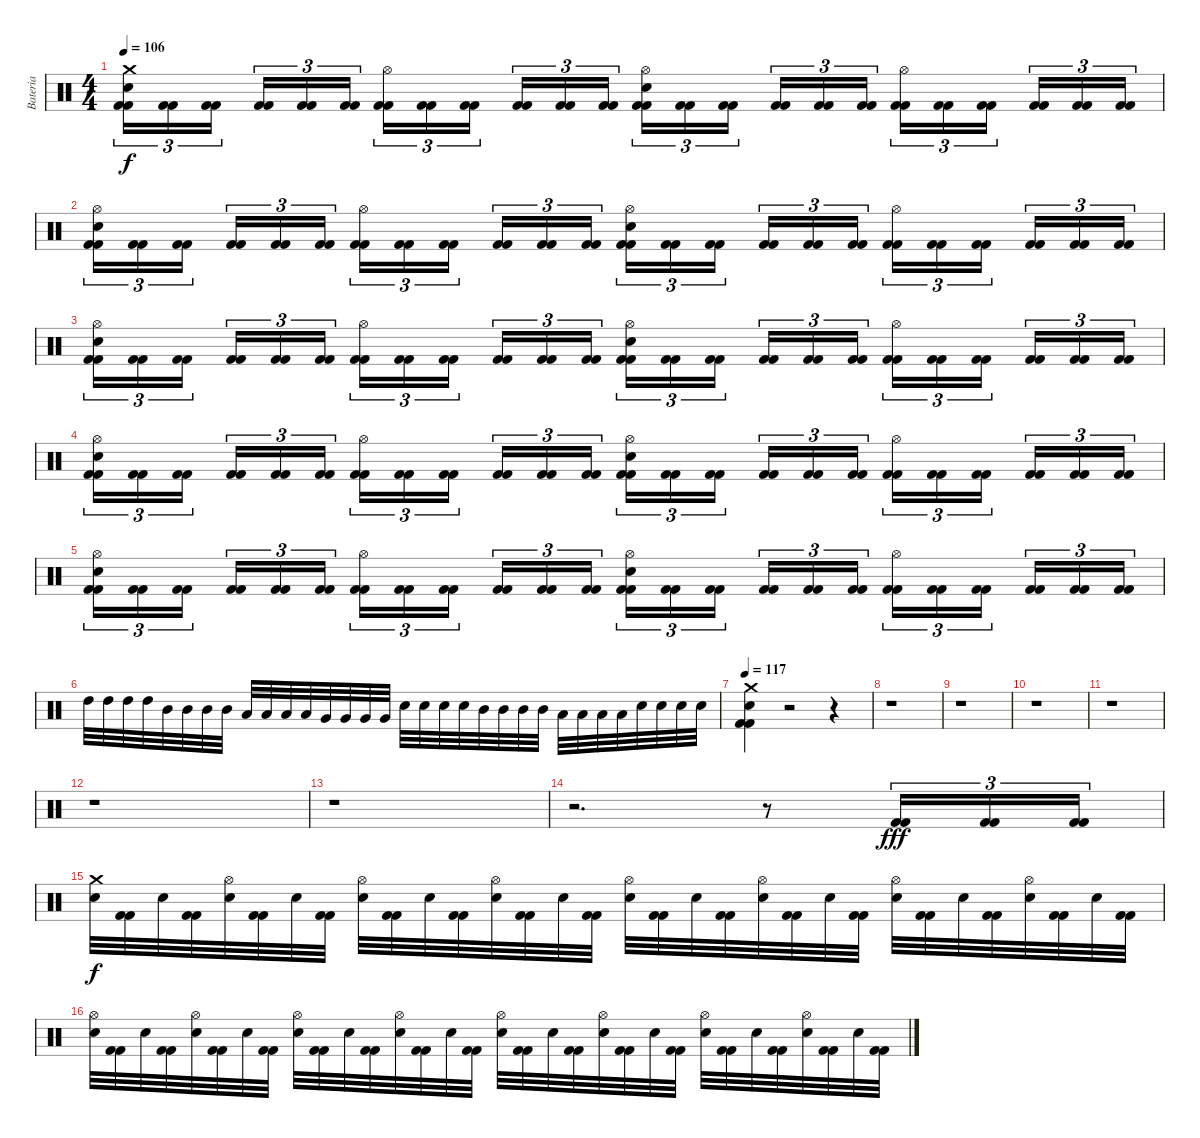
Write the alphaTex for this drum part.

\track ("Bateria" "Bateria") {instrument percussion}
\staff {score}
\articulation defaults
\ts (4 4)
\tempo 106
\clef neutral
\ks c
("Kick (hit) 2" "Kick (hit) 2" "Snare (hit) 2" "Crash medium (hit)").16{tu (3 2) dy f} ("Kick (hit) 2" "Kick (hit) 2").16{tu (3 2)} ("Kick (hit) 2" "Kick (hit) 2").16{tu (3 2)} ("Kick (hit) 2" "Kick (hit) 2").16{tu (3 2)} ("Kick (hit) 2" "Kick (hit) 2").16{tu (3 2)} ("Kick (hit) 2" "Kick (hit) 2").16{tu (3 2)} ("Kick (hit) 2" "Kick (hit) 2" "Hi-Hat (open)").16{tu (3 2)} ("Kick (hit) 2" "Kick (hit) 2").16{tu (3 2)} ("Kick (hit) 2" "Kick (hit) 2").16{tu (3 2)} ("Kick (hit) 2" "Kick (hit) 2").16{tu (3 2)} ("Kick (hit) 2" "Kick (hit) 2").16{tu (3 2)} ("Kick (hit) 2" "Kick (hit) 2").16{tu (3 2)} ("Kick (hit) 2" "Kick (hit) 2" "Snare (hit) 2" "Hi-Hat (open)").16{tu (3 2)} ("Kick (hit) 2" "Kick (hit) 2").16{tu (3 2)} ("Kick (hit) 2" "Kick (hit) 2").16{tu (3 2)} ("Kick (hit) 2" "Kick (hit) 2").16{tu (3 2)} ("Kick (hit) 2" "Kick (hit) 2").16{tu (3 2)} ("Kick (hit) 2" "Kick (hit) 2").16{tu (3 2)} ("Kick (hit) 2" "Kick (hit) 2" "Hi-Hat (open)").16{tu (3 2)} ("Kick (hit) 2" "Kick (hit) 2").16{tu (3 2)} ("Kick (hit) 2" "Kick (hit) 2").16{tu (3 2)} ("Kick (hit) 2" "Kick (hit) 2").16{tu (3 2)} ("Kick (hit) 2" "Kick (hit) 2").16{tu (3 2)} ("Kick (hit) 2" "Kick (hit) 2").16{tu (3 2)} |
("Kick (hit) 2" "Kick (hit) 2" "Snare (hit) 2" "Hi-Hat (open)").16{tu (3 2)} ("Kick (hit) 2" "Kick (hit) 2").16{tu (3 2)} ("Kick (hit) 2" "Kick (hit) 2").16{tu (3 2)} ("Kick (hit) 2" "Kick (hit) 2").16{tu (3 2)} ("Kick (hit) 2" "Kick (hit) 2").16{tu (3 2)} ("Kick (hit) 2" "Kick (hit) 2").16{tu (3 2)} ("Kick (hit) 2" "Kick (hit) 2" "Hi-Hat (open)").16{tu (3 2)} ("Kick (hit) 2" "Kick (hit) 2").16{tu (3 2)} ("Kick (hit) 2" "Kick (hit) 2").16{tu (3 2)} ("Kick (hit) 2" "Kick (hit) 2").16{tu (3 2)} ("Kick (hit) 2" "Kick (hit) 2").16{tu (3 2)} ("Kick (hit) 2" "Kick (hit) 2").16{tu (3 2)} ("Kick (hit) 2" "Kick (hit) 2" "Snare (hit) 2" "Hi-Hat (open)").16{tu (3 2)} ("Kick (hit) 2" "Kick (hit) 2").16{tu (3 2)} ("Kick (hit) 2" "Kick (hit) 2").16{tu (3 2)} ("Kick (hit) 2" "Kick (hit) 2").16{tu (3 2)} ("Kick (hit) 2" "Kick (hit) 2").16{tu (3 2)} ("Kick (hit) 2" "Kick (hit) 2").16{tu (3 2)} ("Kick (hit) 2" "Kick (hit) 2" "Hi-Hat (open)").16{tu (3 2)} ("Kick (hit) 2" "Kick (hit) 2").16{tu (3 2)} ("Kick (hit) 2" "Kick (hit) 2").16{tu (3 2)} ("Kick (hit) 2" "Kick (hit) 2").16{tu (3 2)} ("Kick (hit) 2" "Kick (hit) 2").16{tu (3 2)} ("Kick (hit) 2" "Kick (hit) 2").16{tu (3 2)} |
("Kick (hit) 2" "Kick (hit) 2" "Snare (hit) 2" "Hi-Hat (open)").16{tu (3 2)} ("Kick (hit) 2" "Kick (hit) 2").16{tu (3 2)} ("Kick (hit) 2" "Kick (hit) 2").16{tu (3 2)} ("Kick (hit) 2" "Kick (hit) 2").16{tu (3 2)} ("Kick (hit) 2" "Kick (hit) 2").16{tu (3 2)} ("Kick (hit) 2" "Kick (hit) 2").16{tu (3 2)} ("Kick (hit) 2" "Kick (hit) 2" "Hi-Hat (open)").16{tu (3 2)} ("Kick (hit) 2" "Kick (hit) 2").16{tu (3 2)} ("Kick (hit) 2" "Kick (hit) 2").16{tu (3 2)} ("Kick (hit) 2" "Kick (hit) 2").16{tu (3 2)} ("Kick (hit) 2" "Kick (hit) 2").16{tu (3 2)} ("Kick (hit) 2" "Kick (hit) 2").16{tu (3 2)} ("Kick (hit) 2" "Kick (hit) 2" "Snare (hit) 2" "Hi-Hat (open)").16{tu (3 2)} ("Kick (hit) 2" "Kick (hit) 2").16{tu (3 2)} ("Kick (hit) 2" "Kick (hit) 2").16{tu (3 2)} ("Kick (hit) 2" "Kick (hit) 2").16{tu (3 2)} ("Kick (hit) 2" "Kick (hit) 2").16{tu (3 2)} ("Kick (hit) 2" "Kick (hit) 2").16{tu (3 2)} ("Kick (hit) 2" "Kick (hit) 2" "Hi-Hat (open)").16{tu (3 2)} ("Kick (hit) 2" "Kick (hit) 2").16{tu (3 2)} ("Kick (hit) 2" "Kick (hit) 2").16{tu (3 2)} ("Kick (hit) 2" "Kick (hit) 2").16{tu (3 2)} ("Kick (hit) 2" "Kick (hit) 2").16{tu (3 2)} ("Kick (hit) 2" "Kick (hit) 2").16{tu (3 2)} |
("Kick (hit) 2" "Kick (hit) 2" "Snare (hit) 2" "Hi-Hat (open)").16{tu (3 2)} ("Kick (hit) 2" "Kick (hit) 2").16{tu (3 2)} ("Kick (hit) 2" "Kick (hit) 2").16{tu (3 2)} ("Kick (hit) 2" "Kick (hit) 2").16{tu (3 2)} ("Kick (hit) 2" "Kick (hit) 2").16{tu (3 2)} ("Kick (hit) 2" "Kick (hit) 2").16{tu (3 2)} ("Kick (hit) 2" "Kick (hit) 2" "Hi-Hat (open)").16{tu (3 2)} ("Kick (hit) 2" "Kick (hit) 2").16{tu (3 2)} ("Kick (hit) 2" "Kick (hit) 2").16{tu (3 2)} ("Kick (hit) 2" "Kick (hit) 2").16{tu (3 2)} ("Kick (hit) 2" "Kick (hit) 2").16{tu (3 2)} ("Kick (hit) 2" "Kick (hit) 2").16{tu (3 2)} ("Kick (hit) 2" "Kick (hit) 2" "Snare (hit) 2" "Hi-Hat (open)").16{tu (3 2)} ("Kick (hit) 2" "Kick (hit) 2").16{tu (3 2)} ("Kick (hit) 2" "Kick (hit) 2").16{tu (3 2)} ("Kick (hit) 2" "Kick (hit) 2").16{tu (3 2)} ("Kick (hit) 2" "Kick (hit) 2").16{tu (3 2)} ("Kick (hit) 2" "Kick (hit) 2").16{tu (3 2)} ("Kick (hit) 2" "Kick (hit) 2" "Hi-Hat (open)").16{tu (3 2)} ("Kick (hit) 2" "Kick (hit) 2").16{tu (3 2)} ("Kick (hit) 2" "Kick (hit) 2").16{tu (3 2)} ("Kick (hit) 2" "Kick (hit) 2").16{tu (3 2)} ("Kick (hit) 2" "Kick (hit) 2").16{tu (3 2)} ("Kick (hit) 2" "Kick (hit) 2").16{tu (3 2)} |
("Kick (hit) 2" "Kick (hit) 2" "Snare (hit) 2" "Hi-Hat (open)").16{tu (3 2)} ("Kick (hit) 2" "Kick (hit) 2").16{tu (3 2)} ("Kick (hit) 2" "Kick (hit) 2").16{tu (3 2)} ("Kick (hit) 2" "Kick (hit) 2").16{tu (3 2)} ("Kick (hit) 2" "Kick (hit) 2").16{tu (3 2)} ("Kick (hit) 2" "Kick (hit) 2").16{tu (3 2)} ("Kick (hit) 2" "Kick (hit) 2" "Hi-Hat (open)").16{tu (3 2)} ("Kick (hit) 2" "Kick (hit) 2").16{tu (3 2)} ("Kick (hit) 2" "Kick (hit) 2").16{tu (3 2)} ("Kick (hit) 2" "Kick (hit) 2").16{tu (3 2)} ("Kick (hit) 2" "Kick (hit) 2").16{tu (3 2)} ("Kick (hit) 2" "Kick (hit) 2").16{tu (3 2)} ("Kick (hit) 2" "Kick (hit) 2" "Snare (hit) 2" "Hi-Hat (open)").16{tu (3 2)} ("Kick (hit) 2" "Kick (hit) 2").16{tu (3 2)} ("Kick (hit) 2" "Kick (hit) 2").16{tu (3 2)} ("Kick (hit) 2" "Kick (hit) 2").16{tu (3 2)} ("Kick (hit) 2" "Kick (hit) 2").16{tu (3 2)} ("Kick (hit) 2" "Kick (hit) 2").16{tu (3 2)} ("Kick (hit) 2" "Kick (hit) 2" "Hi-Hat (open)").16{tu (3 2)} ("Kick (hit) 2" "Kick (hit) 2").16{tu (3 2)} ("Kick (hit) 2" "Kick (hit) 2").16{tu (3 2)} ("Kick (hit) 2" "Kick (hit) 2").16{tu (3 2)} ("Kick (hit) 2" "Kick (hit) 2").16{tu (3 2)} ("Kick (hit) 2" "Kick (hit) 2").16{tu (3 2)} |
"High Tom (hit)".32 "High Tom (hit)".32 "High Tom (hit)".32 "High Tom (hit)".32 "Mid Tom (hit)".32 "Mid Tom (hit)".32 "Mid Tom (hit)".32 "Mid Tom (hit)".32 "Low Tom (hit)".32 "Low Tom (hit)".32 "Low Tom (hit)".32 "Low Tom (hit)".32 "Very Low Tom (hit)".32 "Very Low Tom (hit)".32 "Very Low Tom (hit)".32 "Very Low Tom (hit)".32 "Snare (hit) 2".32 "Snare (hit) 2".32 "Snare (hit) 2".32 "Snare (hit) 2".32 "Mid Tom (hit)".32 "Mid Tom (hit)".32 "Mid Tom (hit)".32 "Mid Tom (hit)".32 "Low Tom (hit)".32 "Low Tom (hit)".32 "Low Tom (hit)".32 "Low Tom (hit)".32 "Snare (hit) 2".32 "Snare (hit) 2".32 "Snare (hit) 2".32 "Snare (hit) 2".32 |
\tempo 117
("Kick (hit) 2" "Kick (hit) 2" "Snare (hit) 2" "Crash medium (hit)").4 r.2 r.4 |
r.1 |
r.1 |
r.1 |
r.1 |
r.1 |
r.1 |
r.2{d} r.8 ("Kick (hit) 2" "Kick (hit) 2").16{tu (3 2) dy fff} ("Kick (hit) 2" "Kick (hit) 2").16{tu (3 2)} ("Kick (hit) 2" "Kick (hit) 2").16{tu (3 2)} |
("Crash medium (hit)" "Snare (hit) 2").32{dy f} ("Kick (hit) 2" "Kick (hit) 2").32 "Snare (hit) 2".32 ("Kick (hit) 2" "Kick (hit) 2").32 ("Hi-Hat (open)" "Snare (hit) 2").32 ("Kick (hit) 2" "Kick (hit) 2").32 "Snare (hit) 2".32 ("Kick (hit) 2" "Kick (hit) 2").32 ("Hi-Hat (open)" "Snare (hit) 2").32 ("Kick (hit) 2" "Kick (hit) 2").32 "Snare (hit) 2".32 ("Kick (hit) 2" "Kick (hit) 2").32 ("Hi-Hat (open)" "Snare (hit) 2").32 ("Kick (hit) 2" "Kick (hit) 2").32 "Snare (hit) 2".32 ("Kick (hit) 2" "Kick (hit) 2").32 ("Hi-Hat (open)" "Snare (hit) 2").32 ("Kick (hit) 2" "Kick (hit) 2").32 "Snare (hit) 2".32 ("Kick (hit) 2" "Kick (hit) 2").32 ("Hi-Hat (open)" "Snare (hit) 2").32 ("Kick (hit) 2" "Kick (hit) 2").32 "Snare (hit) 2".32 ("Kick (hit) 2" "Kick (hit) 2").32 ("Hi-Hat (open)" "Snare (hit) 2").32 ("Kick (hit) 2" "Kick (hit) 2").32 "Snare (hit) 2".32 ("Kick (hit) 2" "Kick (hit) 2").32 ("Hi-Hat (open)" "Snare (hit) 2").32 ("Kick (hit) 2" "Kick (hit) 2").32 "Snare (hit) 2".32 ("Kick (hit) 2" "Kick (hit) 2").32 |
("Hi-Hat (open)" "Snare (hit) 2").32 ("Kick (hit) 2" "Kick (hit) 2").32 "Snare (hit) 2".32 ("Kick (hit) 2" "Kick (hit) 2").32 ("Hi-Hat (open)" "Snare (hit) 2").32 ("Kick (hit) 2" "Kick (hit) 2").32 "Snare (hit) 2".32 ("Kick (hit) 2" "Kick (hit) 2").32 ("Hi-Hat (open)" "Snare (hit) 2").32 ("Kick (hit) 2" "Kick (hit) 2").32 "Snare (hit) 2".32 ("Kick (hit) 2" "Kick (hit) 2").32 ("Hi-Hat (open)" "Snare (hit) 2").32 ("Kick (hit) 2" "Kick (hit) 2").32 "Snare (hit) 2".32 ("Kick (hit) 2" "Kick (hit) 2").32 ("Hi-Hat (open)" "Snare (hit) 2").32 ("Kick (hit) 2" "Kick (hit) 2").32 "Snare (hit) 2".32 ("Kick (hit) 2" "Kick (hit) 2").32 ("Hi-Hat (open)" "Snare (hit) 2").32 ("Kick (hit) 2" "Kick (hit) 2").32 "Snare (hit) 2".32 ("Kick (hit) 2" "Kick (hit) 2").32 ("Hi-Hat (open)" "Snare (hit) 2").32 ("Kick (hit) 2" "Kick (hit) 2").32 "Snare (hit) 2".32 ("Kick (hit) 2" "Kick (hit) 2").32 ("Hi-Hat (open)" "Snare (hit) 2").32 ("Kick (hit) 2" "Kick (hit) 2").32 "Snare (hit) 2".32 ("Kick (hit) 2" "Kick (hit) 2").32
